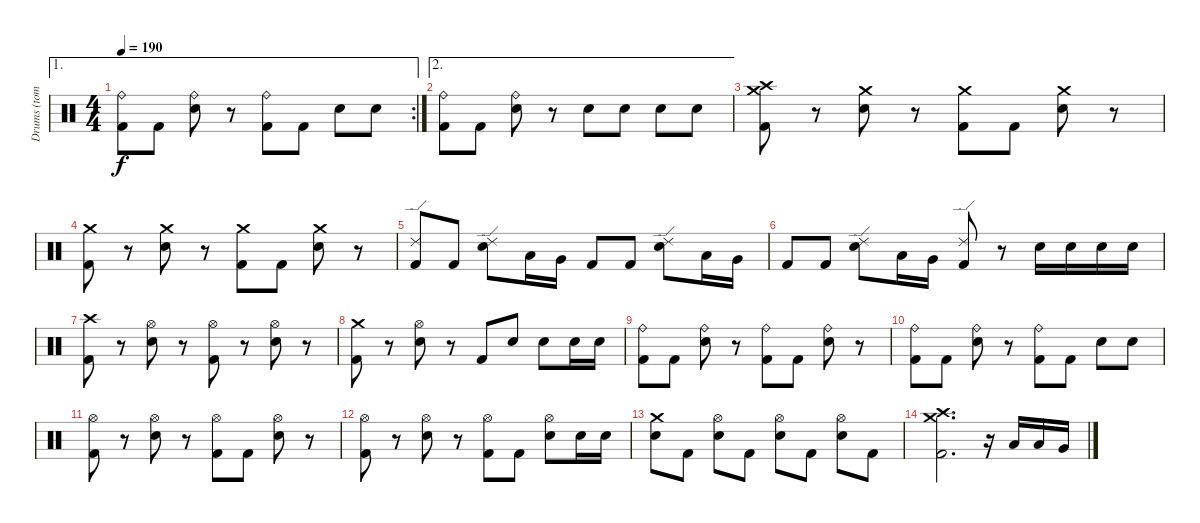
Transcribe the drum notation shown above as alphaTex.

\track ("Drums (tom)" "Drums (tom") {instrument percussion}
\staff {score}
\articulation defaults
\ae 1
\rc 2
\ts (4 4)
\tempo 190
\clef neutral
\ks c
("Ride (bell)" "Kick (hit) 2").8{dy f} "Kick (hit) 2".8 ("Ride (bell)" "Electric Snare (hit)").8 r.8 ("Ride (bell)" "Kick (hit) 2").8 "Kick (hit) 2".8 "Electric Snare (hit)".8 "Electric Snare (hit)".8 |
\ae 2
("Ride (bell)" "Kick (hit) 2").8 "Kick (hit) 2".8 ("Ride (bell)" "Electric Snare (hit)").8 r.8 "Electric Snare (hit)".8 "Electric Snare (hit)".8 "Electric Snare (hit)".8 "Electric Snare (hit)".8 |
("Crash high (hit)" "Crash medium (hit)" "Kick (hit) 2").8 r.8 ("Crash medium (hit)" "Electric Snare (hit)").8 r.8 ("Crash medium (hit)" "Kick (hit) 2").8 "Kick (hit) 2".8 ("Crash medium (hit)" "Electric Snare (hit)").8 r.8 |
("Crash medium (hit)" "Kick (hit) 2").8 r.8 ("Crash medium (hit)" "Electric Snare (hit)").8 r.8 ("Crash medium (hit)" "Kick (hit) 2").8 "Kick (hit) 2".8 ("Crash medium (hit)" "Electric Snare (hit)").8 r.8 |
("Ride (edge) 2" "Kick (hit) 2").8 "Kick (hit) 2".8 ("Ride (edge) 2" "Electric Snare (hit)").8 "Low Tom (hit)".16 "Very Low Tom (hit)".16 "Kick (hit) 2".8 "Kick (hit) 2".8 ("Ride (edge) 2" "Electric Snare (hit)").8 "Low Tom (hit)".16 "Very Low Tom (hit)".16 |
"Kick (hit) 2".8 "Kick (hit) 2".8 ("Ride (edge) 2" "Electric Snare (hit)").8 "Low Tom (hit)".16 "Very Low Tom (hit)".16 ("Ride (edge) 2" "Kick (hit) 2").8 r.8 "Electric Snare (hit)".16 "Electric Snare (hit)".16 "Electric Snare (hit)".16 "Electric Snare (hit)".16 |
("Crash high (hit)" "Kick (hit) 2").8 r.8 ("Hi-Hat (open)" "Electric Snare (hit)").8 r.8 ("Hi-Hat (open)" "Kick (hit) 2").8 r.8 ("Hi-Hat (open)" "Electric Snare (hit)").8 r.8 |
("Crash medium (hit)" "Kick (hit) 2").8 r.8 ("Hi-Hat (open)" "Electric Snare (hit)").8 r.8 "Kick (hit) 2".8 "Electric Snare (hit)".8 "Electric Snare (hit)".8 "Electric Snare (hit)".16 "Electric Snare (hit)".16 |
("Ride (bell)" "Kick (hit) 2").8 "Kick (hit) 2".8 ("Ride (bell)" "Electric Snare (hit)").8 r.8 ("Ride (bell)" "Kick (hit) 2").8 "Kick (hit) 2".8 ("Ride (bell)" "Electric Snare (hit)").8 r.8 |
("Ride (bell)" "Kick (hit) 2").8 "Kick (hit) 2".8 ("Ride (bell)" "Electric Snare (hit)").8 r.8 ("Ride (bell)" "Kick (hit) 2").8 "Kick (hit) 2".8 "Electric Snare (hit)".8 "Electric Snare (hit)".8 |
("Hi-Hat (open)" "Kick (hit) 2").8 r.8 ("Hi-Hat (open)" "Electric Snare (hit)").8 r.8 ("Hi-Hat (open)" "Kick (hit) 2").8 "Kick (hit) 2".8 ("Hi-Hat (open)" "Electric Snare (hit)").8 r.8 |
("Hi-Hat (open)" "Kick (hit) 2").8 r.8 ("Hi-Hat (open)" "Electric Snare (hit)").8 r.8 ("Hi-Hat (open)" "Kick (hit) 2").8 "Kick (hit) 2".8 ("Hi-Hat (open)" "Electric Snare (hit)").8 "Electric Snare (hit)".16 "Electric Snare (hit)".16 |
("Electric Snare (hit)" "Crash medium (hit)").8 "Kick (hit) 2".8 ("Hi-Hat (open)" "Electric Snare (hit)").8 "Kick (hit) 2".8 ("Hi-Hat (open)" "Electric Snare (hit)").8 "Kick (hit) 2".8 ("Hi-Hat (open)" "Electric Snare (hit)").8 "Kick (hit) 2".8 |
("Crash high (hit)" "Kick (hit) 2" "Crash medium (hit)").2{d} r.16 "Low Tom (hit)".16 "Low Tom (hit)".16 "Very Low Tom (hit)".16
